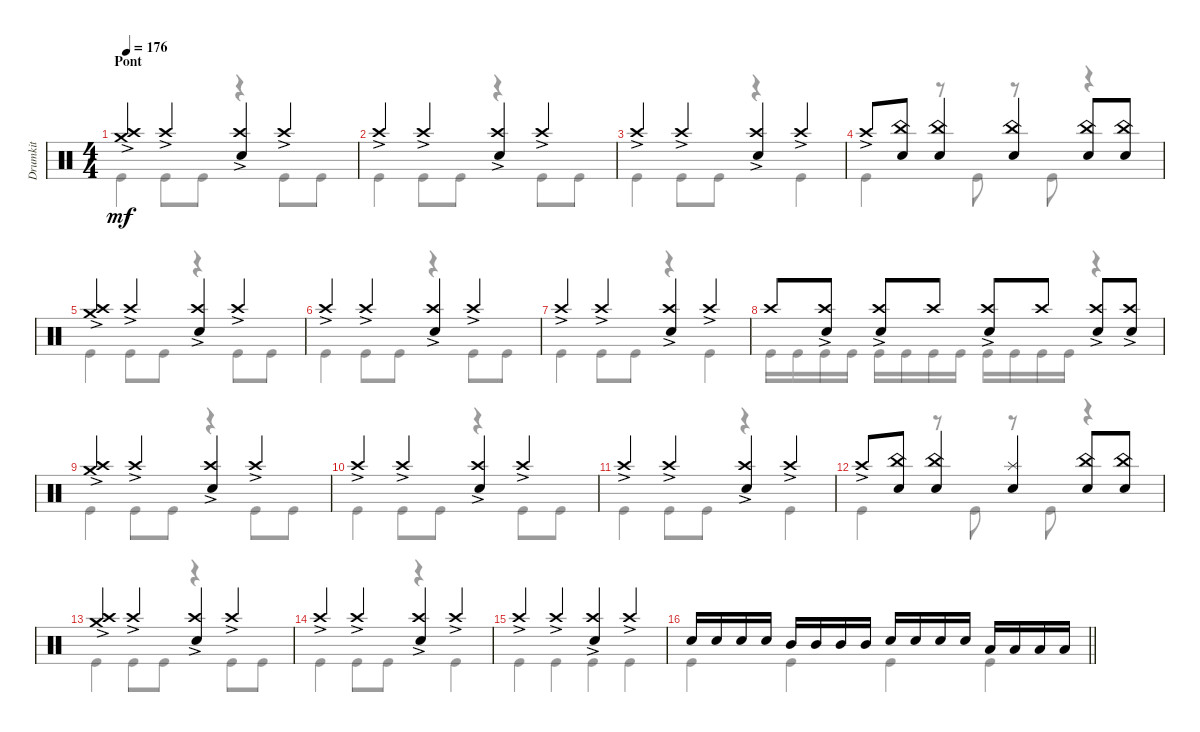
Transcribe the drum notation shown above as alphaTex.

\track ("Drumkit" "Drumkit") {instrument percussion}
\staff {score}
\articulation defaults
\voice
\ts (4 4)
\section ("" "Pont")
\tempo 176
\clef neutral
\ks c
("Crash medium (hit)"{ac} "Crash high (hit)"{ac}).4{dy mf} "Crash high (hit)"{ac}.4 ("Crash high (hit)"{ac} "Snare (hit) 2").4 "Crash high (hit)"{ac}.4 |
"Crash high (hit)"{ac}.4 "Crash high (hit)"{ac}.4 ("Crash high (hit)"{ac} "Snare (hit) 2").4 "Crash high (hit)"{ac}.4 |
"Crash high (hit)"{ac}.4 "Crash high (hit)"{ac}.4 ("Crash high (hit)"{ac} "Snare (hit) 2").4 "Crash high (hit)"{ac}.4 |
"Crash high (hit)"{ac}.8 ("Snare (hit) 2" "China (hit)").8 ("Snare (hit) 2" "China (hit)").4 ("Snare (hit) 2" "China (hit)").4 ("Snare (hit) 2" "China (hit)").8 ("Snare (hit) 2" "China (hit)").8 |
("Crash medium (hit)"{ac} "Crash high (hit)"{ac}).4 "Crash high (hit)"{ac}.4 ("Crash high (hit)"{ac} "Snare (hit) 2").4 "Crash high (hit)"{ac}.4 |
"Crash high (hit)"{ac}.4 "Crash high (hit)"{ac}.4 ("Crash high (hit)"{ac} "Snare (hit) 2").4 "Crash high (hit)"{ac}.4 |
"Crash high (hit)"{ac}.4 "Crash high (hit)"{ac}.4 ("Crash high (hit)"{ac} "Snare (hit) 2").4 "Crash high (hit)"{ac}.4 |
"Crash high (hit)".8 ("Snare (hit) 2" "Crash high (hit)"{ac}).8 ("Snare (hit) 2" "Crash high (hit)"{ac}).8 "Crash high (hit)".8 ("Snare (hit) 2" "Crash high (hit)"{ac}).8 "Crash high (hit)".8 ("Snare (hit) 2" "Crash high (hit)"{ac}).8 ("Snare (hit) 2" "Crash high (hit)"{ac}).8 |
("Crash medium (hit)"{ac} "Crash high (hit)"{ac}).4 "Crash high (hit)"{ac}.4 ("Crash high (hit)"{ac} "Snare (hit) 2").4 "Crash high (hit)"{ac}.4 |
"Crash high (hit)"{ac}.4 "Crash high (hit)"{ac}.4 ("Crash high (hit)"{ac} "Snare (hit) 2").4 "Crash high (hit)"{ac}.4 |
"Crash high (hit)"{ac}.4 "Crash high (hit)"{ac}.4 ("Crash high (hit)"{ac} "Snare (hit) 2").4 "Crash high (hit)"{ac}.4 |
"Crash high (hit)"{ac}.8 ("Snare (hit) 2" "China (hit)").8 ("Snare (hit) 2" "China (hit)").4 ("Snare (hit) 2" "Splash (hit)").4 ("Snare (hit) 2" "China (hit)").8 ("Snare (hit) 2" "China (hit)").8 |
("Crash medium (hit)"{ac} "Crash high (hit)"{ac}).4 "Crash high (hit)"{ac}.4 ("Crash high (hit)"{ac} "Snare (hit) 2").4 "Crash high (hit)"{ac}.4 |
"Crash high (hit)"{ac}.4 "Crash high (hit)"{ac}.4 ("Crash high (hit)"{ac} "Snare (hit) 2").4 "Crash high (hit)"{ac}.4 |
"Crash high (hit)"{ac}.4 "Crash high (hit)"{ac}.4 ("Crash high (hit)"{ac} "Snare (hit) 2").4 "Crash high (hit)"{ac}.4 |
\barLineRight lightlight "Snare (hit) 2".16 "Snare (hit) 2".16 "Snare (hit) 2".16 "Snare (hit) 2".16 "Mid Tom (hit)".16 "Mid Tom (hit)".16 "Mid Tom (hit)".16 "Mid Tom (hit)".16 "Snare (hit) 2".16 "Snare (hit) 2".16 "Snare (hit) 2".16 "Snare (hit) 2".16 "Low Tom (hit)".16 "Low Tom (hit)".16 "Low Tom (hit)".16 "Low Tom (hit)".16
\voice
\clef neutral
\ottava regular
\simile none
\ks c "Kick (hit)".4{dy mf} "Kick (hit)".8 "Kick (hit)".8
r.4 "Kick (hit)".8 "Kick (hit)".8 |
"Kick (hit)".4 "Kick (hit)".8 "Kick (hit)".8 r.4 "Kick (hit)".8 "Kick (hit)".8 |
"Kick (hit)".4 "Kick (hit)".8 "Kick (hit)".8 r.4 "Kick (hit)".4 |
"Kick (hit)".4 r.8 "Kick (hit)".8 r.8 "Kick (hit)".8 r.4 |
"Kick (hit)".4 "Kick (hit)".8 "Kick (hit)".8 r.4 "Kick (hit)".8 "Kick (hit)".8 |
"Kick (hit)".4 "Kick (hit)".8 "Kick (hit)".8 r.4 "Kick (hit)".8 "Kick (hit)".8 |
"Kick (hit)".4 "Kick (hit)".8 "Kick (hit)".8 r.4 "Kick (hit)".4 |
"Kick (hit)".16 "Kick (hit)".16 "Kick (hit)".16 "Kick (hit)".16 "Kick (hit)".16 "Kick (hit)".16 "Kick (hit)".16 "Kick (hit)".16 "Kick (hit)".16 "Kick (hit)".16 "Kick (hit)".16 "Kick (hit)".16 r.4 |
"Kick (hit)".4 "Kick (hit)".8 "Kick (hit)".8 r.4 "Kick (hit)".8 "Kick (hit)".8 |
"Kick (hit)".4 "Kick (hit)".8 "Kick (hit)".8 r.4 "Kick (hit)".8 "Kick (hit)".8 |
"Kick (hit)".4 "Kick (hit)".8 "Kick (hit)".8 r.4 "Kick (hit)".4 |
"Kick (hit)".4 r.8 "Kick (hit)".8 r.8 "Kick (hit)".8 r.4 |
"Kick (hit)".4 "Kick (hit)".8 "Kick (hit)".8 r.4 "Kick (hit)".8 "Kick (hit)".8 |
"Kick (hit)".4 "Kick (hit)".8 "Kick (hit)".8 r.4 "Kick (hit)".4 |
"Kick (hit)".4 "Kick (hit)".4 "Kick (hit)".4 "Kick (hit)".4 |
\barLineRight lightlight "Kick (hit)".4 "Kick (hit)".4 "Kick (hit)".4 "Kick (hit)".4
